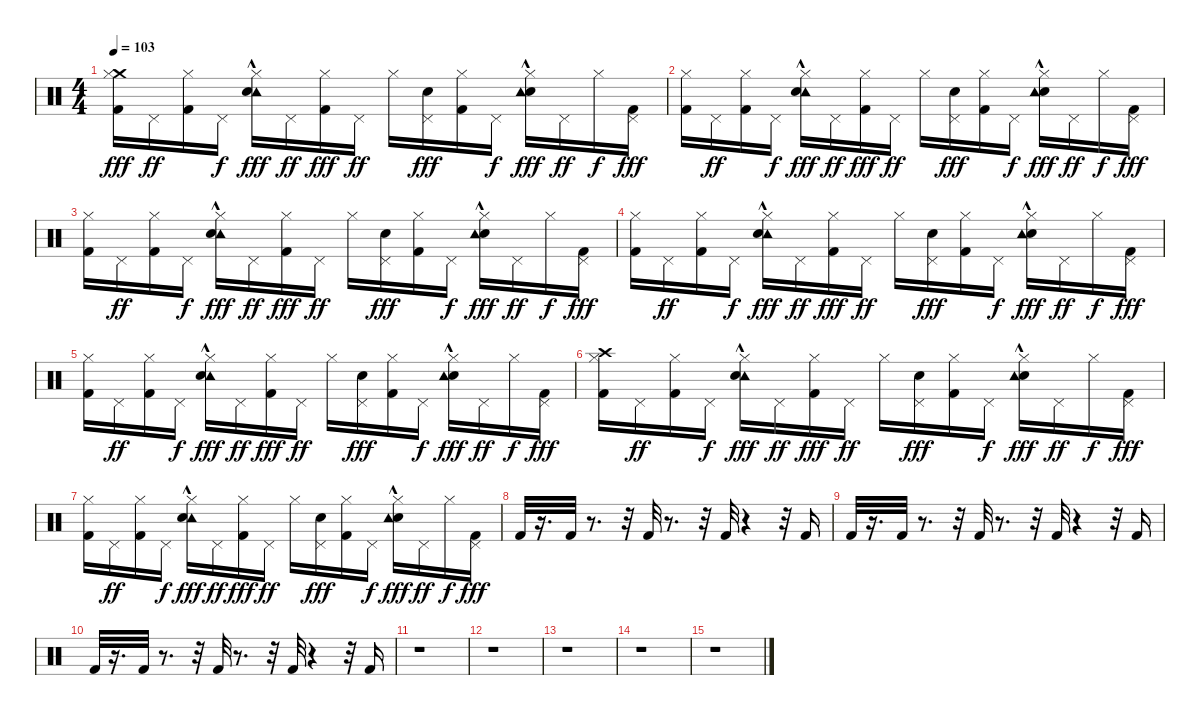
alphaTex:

\track "" {instrument percussion}
\staff {score}
\articulation defaults
\ts (4 4)
\tempo 103
\clef neutral
\ks c
("Crash medium (hit)" "Kick (hit) 2" "Hi-Hat (closed)").16{dy fff} "Pedal Hi-Hat (hit)".16{dy ff} ("Kick (hit) 2" "Hi-Hat (closed)").16 "Pedal Hi-Hat (hit)".16{dy f} ("Tambourine (hit)"{hac} "Hi-Hat (closed)" "Electric Snare (hit)").16{dy fff} "Pedal Hi-Hat (hit)".16{dy ff} ("Hi-Hat (closed)" "Kick (hit) 2").16{dy fff} "Pedal Hi-Hat (hit)".16{dy ff} "Hi-Hat (closed)".16 ("Pedal Hi-Hat (hit)" "Electric Snare (hit)").16{dy fff} ("Kick (hit) 2" "Hi-Hat (closed)").16 "Pedal Hi-Hat (hit)".16{dy f} ("Electric Snare (hit)" "Hi-Hat (closed)" "Tambourine (hit)"{hac}).16{dy fff} "Pedal Hi-Hat (hit)".16{dy ff} "Hi-Hat (closed)".16{dy f} ("Pedal Hi-Hat (hit)" "Kick (hit) 2").16{dy fff} |
("Kick (hit) 2" "Hi-Hat (closed)").16 "Pedal Hi-Hat (hit)".16{dy ff} ("Kick (hit) 2" "Hi-Hat (closed)").16 "Pedal Hi-Hat (hit)".16{dy f} ("Tambourine (hit)"{hac} "Hi-Hat (closed)" "Electric Snare (hit)").16{dy fff} "Pedal Hi-Hat (hit)".16{dy ff} ("Hi-Hat (closed)" "Kick (hit) 2").16{dy fff} "Pedal Hi-Hat (hit)".16{dy ff} "Hi-Hat (closed)".16 ("Pedal Hi-Hat (hit)" "Electric Snare (hit)").16{dy fff} ("Kick (hit) 2" "Hi-Hat (closed)").16 "Pedal Hi-Hat (hit)".16{dy f} ("Electric Snare (hit)" "Hi-Hat (closed)" "Tambourine (hit)"{hac}).16{dy fff} "Pedal Hi-Hat (hit)".16{dy ff} "Hi-Hat (closed)".16{dy f} ("Pedal Hi-Hat (hit)" "Kick (hit) 2").16{dy fff} |
("Kick (hit) 2" "Hi-Hat (closed)").16 "Pedal Hi-Hat (hit)".16{dy ff} ("Kick (hit) 2" "Hi-Hat (closed)").16 "Pedal Hi-Hat (hit)".16{dy f} ("Tambourine (hit)"{hac} "Hi-Hat (closed)" "Electric Snare (hit)").16{dy fff} "Pedal Hi-Hat (hit)".16{dy ff} ("Hi-Hat (closed)" "Kick (hit) 2").16{dy fff} "Pedal Hi-Hat (hit)".16{dy ff} "Hi-Hat (closed)".16 ("Pedal Hi-Hat (hit)" "Electric Snare (hit)").16{dy fff} ("Kick (hit) 2" "Hi-Hat (closed)").16 "Pedal Hi-Hat (hit)".16{dy f} ("Electric Snare (hit)" "Hi-Hat (closed)" "Tambourine (hit)"{hac}).16{dy fff} "Pedal Hi-Hat (hit)".16{dy ff} "Hi-Hat (closed)".16{dy f} ("Pedal Hi-Hat (hit)" "Kick (hit) 2").16{dy fff} |
("Kick (hit) 2" "Hi-Hat (closed)").16 "Pedal Hi-Hat (hit)".16{dy ff} ("Kick (hit) 2" "Hi-Hat (closed)").16 "Pedal Hi-Hat (hit)".16{dy f} ("Tambourine (hit)"{hac} "Hi-Hat (closed)" "Electric Snare (hit)").16{dy fff} "Pedal Hi-Hat (hit)".16{dy ff} ("Hi-Hat (closed)" "Kick (hit) 2").16{dy fff} "Pedal Hi-Hat (hit)".16{dy ff} "Hi-Hat (closed)".16 ("Pedal Hi-Hat (hit)" "Electric Snare (hit)").16{dy fff} ("Kick (hit) 2" "Hi-Hat (closed)").16 "Pedal Hi-Hat (hit)".16{dy f} ("Electric Snare (hit)" "Hi-Hat (closed)" "Tambourine (hit)"{hac}).16{dy fff} "Pedal Hi-Hat (hit)".16{dy ff} "Hi-Hat (closed)".16{dy f} ("Pedal Hi-Hat (hit)" "Kick (hit) 2").16{dy fff} |
("Kick (hit) 2" "Hi-Hat (closed)").16 "Pedal Hi-Hat (hit)".16{dy ff} ("Kick (hit) 2" "Hi-Hat (closed)").16 "Pedal Hi-Hat (hit)".16{dy f} ("Tambourine (hit)"{hac} "Hi-Hat (closed)" "Electric Snare (hit)").16{dy fff} "Pedal Hi-Hat (hit)".16{dy ff} ("Hi-Hat (closed)" "Kick (hit) 2").16{dy fff} "Pedal Hi-Hat (hit)".16{dy ff} "Hi-Hat (closed)".16 ("Pedal Hi-Hat (hit)" "Electric Snare (hit)").16{dy fff} ("Kick (hit) 2" "Hi-Hat (closed)").16 "Pedal Hi-Hat (hit)".16{dy f} ("Electric Snare (hit)" "Hi-Hat (closed)" "Tambourine (hit)"{hac}).16{dy fff} "Pedal Hi-Hat (hit)".16{dy ff} "Hi-Hat (closed)".16{dy f} ("Pedal Hi-Hat (hit)" "Kick (hit) 2").16{dy fff} |
("Crash high (hit)" "Kick (hit) 2" "Hi-Hat (closed)").16 "Pedal Hi-Hat (hit)".16{dy ff} ("Kick (hit) 2" "Hi-Hat (closed)").16 "Pedal Hi-Hat (hit)".16{dy f} ("Tambourine (hit)"{hac} "Hi-Hat (closed)" "Electric Snare (hit)").16{dy fff} "Pedal Hi-Hat (hit)".16{dy ff} ("Hi-Hat (closed)" "Kick (hit) 2").16{dy fff} "Pedal Hi-Hat (hit)".16{dy ff} "Hi-Hat (closed)".16 ("Pedal Hi-Hat (hit)" "Electric Snare (hit)").16{dy fff} ("Kick (hit) 2" "Hi-Hat (closed)").16 "Pedal Hi-Hat (hit)".16{dy f} ("Electric Snare (hit)" "Hi-Hat (closed)" "Tambourine (hit)"{hac}).16{dy fff} "Pedal Hi-Hat (hit)".16{dy ff} "Hi-Hat (closed)".16{dy f} ("Pedal Hi-Hat (hit)" "Kick (hit) 2").16{dy fff} |
("Kick (hit) 2" "Hi-Hat (closed)").16 "Pedal Hi-Hat (hit)".16{dy ff} ("Kick (hit) 2" "Hi-Hat (closed)").16 "Pedal Hi-Hat (hit)".16{dy f} ("Tambourine (hit)"{hac} "Hi-Hat (closed)" "Electric Snare (hit)").16{dy fff} "Pedal Hi-Hat (hit)".16{dy ff} ("Hi-Hat (closed)" "Kick (hit) 2").16{dy fff} "Pedal Hi-Hat (hit)".16{dy ff} "Hi-Hat (closed)".16 ("Pedal Hi-Hat (hit)" "Electric Snare (hit)").16{dy fff} ("Kick (hit) 2" "Hi-Hat (closed)").16 "Pedal Hi-Hat (hit)".16{dy f} ("Electric Snare (hit)" "Hi-Hat (closed)" "Tambourine (hit)"{hac}).16{dy fff} "Pedal Hi-Hat (hit)".16{dy ff} "Hi-Hat (closed)".16{dy f} ("Pedal Hi-Hat (hit)" "Kick (hit) 2").16{dy fff} |
"Kick (hit) 2".32 r.16{d} "Kick (hit) 2".32 r.8{d} r.32 "Kick (hit) 2".32 r.8{d} r.32 "Kick (hit) 2".32 r.4 r.32 "Kick (hit) 2".16 |
"Kick (hit) 2".32 r.16{d} "Kick (hit) 2".32 r.8{d} r.32 "Kick (hit) 2".32 r.8{d} r.32 "Kick (hit) 2".32 r.4 r.32 "Kick (hit) 2".16 |
"Kick (hit) 2".32 r.16{d} "Kick (hit) 2".32 r.8{d} r.32 "Kick (hit) 2".32 r.8{d} r.32 "Kick (hit) 2".32 r.4 r.32 "Kick (hit) 2".16 |
r.1 |
r.1 |
r.1 |
r.1 |
r.1
